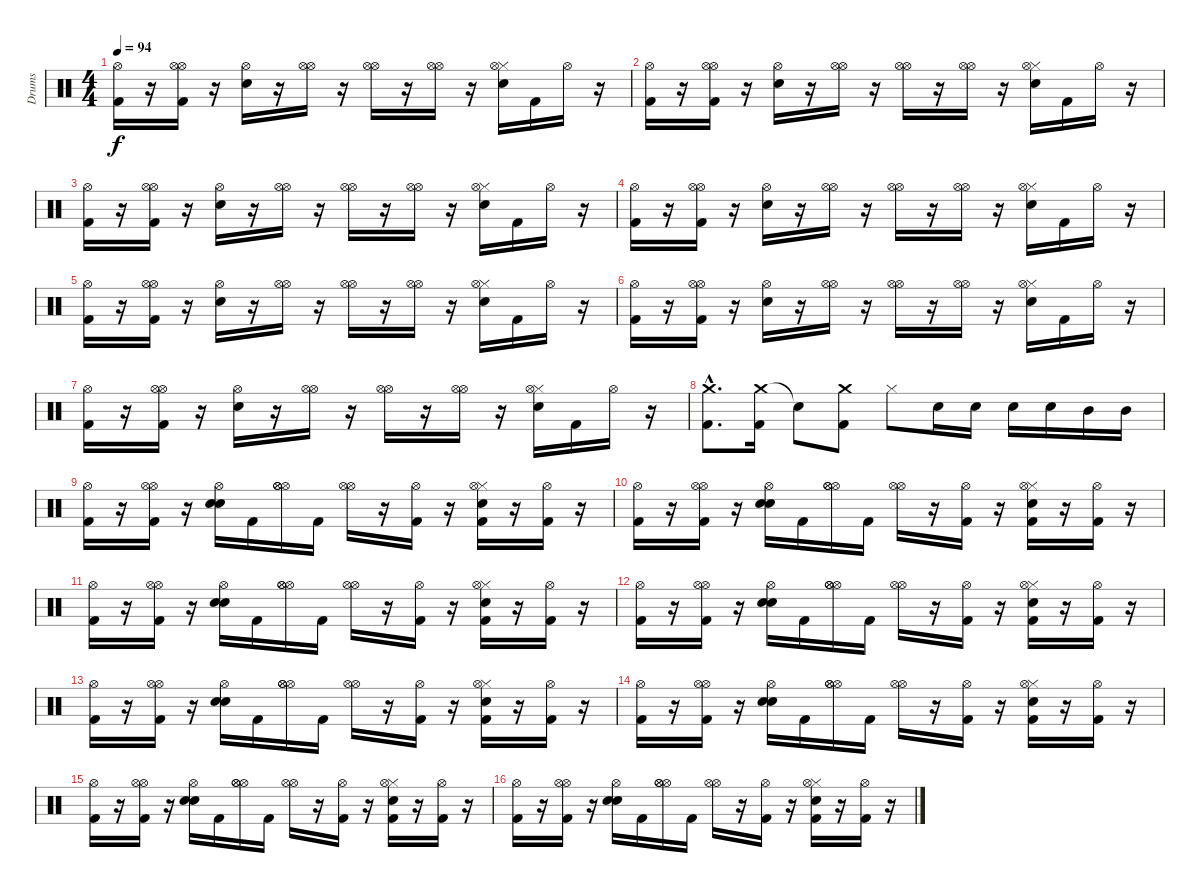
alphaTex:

\track ("Drums" "Drums") {instrument percussion}
\staff {score}
\articulation defaults
\ts (4 4)
\tempo 94
\clef neutral
\ks c
("Hi-Hat (open)" "Kick (hit) 2").16{dy f} r.16 ("Hi-Hat (open)" "Hi-Hat (open)" "Kick (hit) 2").16 r.16 ("Hi-Hat (open)" "Snare (hit) 2").16 r.16 ("Hi-Hat (open)" "Hi-Hat (open)").16 r.16 ("Hi-Hat (open)" "Hi-Hat (open)").16 r.16 ("Hi-Hat (open)" "Hi-Hat (open)").16 r.16 ("Hi-Hat (closed)" "Snare (hit) 2" "Hi-Hat (open)").16 "Kick (hit) 2".16 "Hi-Hat (open)".16 r.16 |
("Hi-Hat (open)" "Kick (hit) 2").16 r.16 ("Hi-Hat (open)" "Hi-Hat (open)" "Kick (hit) 2").16 r.16 ("Hi-Hat (open)" "Snare (hit) 2").16 r.16 ("Hi-Hat (open)" "Hi-Hat (open)").16 r.16 ("Hi-Hat (open)" "Hi-Hat (open)").16 r.16 ("Hi-Hat (open)" "Hi-Hat (open)").16 r.16 ("Hi-Hat (closed)" "Snare (hit) 2" "Hi-Hat (open)").16 "Kick (hit) 2".16 "Hi-Hat (open)".16 r.16 |
("Hi-Hat (open)" "Kick (hit) 2").16 r.16 ("Hi-Hat (open)" "Hi-Hat (open)" "Kick (hit) 2").16 r.16 ("Hi-Hat (open)" "Snare (hit) 2").16 r.16 ("Hi-Hat (open)" "Hi-Hat (open)").16 r.16 ("Hi-Hat (open)" "Hi-Hat (open)").16 r.16 ("Hi-Hat (open)" "Hi-Hat (open)").16 r.16 ("Hi-Hat (closed)" "Snare (hit) 2" "Hi-Hat (open)").16 "Kick (hit) 2".16 "Hi-Hat (open)".16 r.16 |
("Hi-Hat (open)" "Kick (hit) 2").16 r.16 ("Hi-Hat (open)" "Hi-Hat (open)" "Kick (hit) 2").16 r.16 ("Hi-Hat (open)" "Snare (hit) 2").16 r.16 ("Hi-Hat (open)" "Hi-Hat (open)").16 r.16 ("Hi-Hat (open)" "Hi-Hat (open)").16 r.16 ("Hi-Hat (open)" "Hi-Hat (open)").16 r.16 ("Hi-Hat (closed)" "Snare (hit) 2" "Hi-Hat (open)").16 "Kick (hit) 2".16 "Hi-Hat (open)".16 r.16 |
("Hi-Hat (open)" "Kick (hit) 2").16 r.16 ("Hi-Hat (open)" "Hi-Hat (open)" "Kick (hit) 2").16 r.16 ("Hi-Hat (open)" "Snare (hit) 2").16 r.16 ("Hi-Hat (open)" "Hi-Hat (open)").16 r.16 ("Hi-Hat (open)" "Hi-Hat (open)").16 r.16 ("Hi-Hat (open)" "Hi-Hat (open)").16 r.16 ("Hi-Hat (closed)" "Snare (hit) 2" "Hi-Hat (open)").16 "Kick (hit) 2".16 "Hi-Hat (open)".16 r.16 |
("Hi-Hat (open)" "Kick (hit) 2").16 r.16 ("Hi-Hat (open)" "Hi-Hat (open)" "Kick (hit) 2").16 r.16 ("Hi-Hat (open)" "Snare (hit) 2").16 r.16 ("Hi-Hat (open)" "Hi-Hat (open)").16 r.16 ("Hi-Hat (open)" "Hi-Hat (open)").16 r.16 ("Hi-Hat (open)" "Hi-Hat (open)").16 r.16 ("Hi-Hat (closed)" "Snare (hit) 2" "Hi-Hat (open)").16 "Kick (hit) 2".16 "Hi-Hat (open)".16 r.16 |
("Hi-Hat (open)" "Kick (hit) 2").16 r.16 ("Hi-Hat (open)" "Hi-Hat (open)" "Kick (hit) 2").16 r.16 ("Hi-Hat (open)" "Snare (hit) 2").16 r.16 ("Hi-Hat (open)" "Hi-Hat (open)").16 r.16 ("Hi-Hat (open)" "Hi-Hat (open)").16 r.16 ("Hi-Hat (open)" "Hi-Hat (open)").16 r.16 ("Hi-Hat (closed)" "Snare (hit) 2" "Hi-Hat (open)").16 "Kick (hit) 2".16 "Hi-Hat (open)".16 r.16 |
("Crash medium (hit)"{hac} "Kick (hit) 2"{hac}).8{d} ("Crash medium (hit)" "Kick (hit) 2").16 "Snare (hit)"{t}.8 ("Crash medium (hit)" "Kick (hit) 2").8 "Hi-Hat (closed)".8 "Snare (hit) 2".16 "Snare (hit) 2".16 "Snare (hit) 2".16 "Snare (hit) 2".16 "Mid Tom (hit)".16 "Mid Tom (hit)".16 |
("Hi-Hat (open)" "Kick (hit) 2").16 r.16 ("Hi-Hat (open)" "Hi-Hat (open)" "Kick (hit) 2").16 r.16 ("Hi-Hat (open)" "Snare (hit) 2" "Snare (hit) 2").16 "Kick (hit) 2".16 ("Hi-Hat (open)" "Hi-Hat (open)" "Hi-Hat (open)").16 "Kick (hit) 2".16 ("Hi-Hat (open)" "Hi-Hat (open)").16 r.16 ("Hi-Hat (open)" "Kick (hit) 2").16 r.16 ("Hi-Hat (closed)" "Snare (hit) 2" "Hi-Hat (open)" "Kick (hit) 2").16 r.16 ("Hi-Hat (open)" "Kick (hit) 2").16 r.16 |
("Hi-Hat (open)" "Kick (hit) 2").16 r.16 ("Hi-Hat (open)" "Hi-Hat (open)" "Kick (hit) 2").16 r.16 ("Hi-Hat (open)" "Snare (hit) 2" "Snare (hit) 2").16 "Kick (hit) 2".16 ("Hi-Hat (open)" "Hi-Hat (open)" "Hi-Hat (open)").16 "Kick (hit) 2".16 ("Hi-Hat (open)" "Hi-Hat (open)").16 r.16 ("Hi-Hat (open)" "Kick (hit) 2").16 r.16 ("Hi-Hat (closed)" "Snare (hit) 2" "Hi-Hat (open)" "Kick (hit) 2").16 r.16 ("Hi-Hat (open)" "Kick (hit) 2").16 r.16 |
("Hi-Hat (open)" "Kick (hit) 2").16 r.16 ("Hi-Hat (open)" "Hi-Hat (open)" "Kick (hit) 2").16 r.16 ("Hi-Hat (open)" "Snare (hit) 2" "Snare (hit) 2").16 "Kick (hit) 2".16 ("Hi-Hat (open)" "Hi-Hat (open)" "Hi-Hat (open)").16 "Kick (hit) 2".16 ("Hi-Hat (open)" "Hi-Hat (open)").16 r.16 ("Hi-Hat (open)" "Kick (hit) 2").16 r.16 ("Hi-Hat (closed)" "Snare (hit) 2" "Hi-Hat (open)" "Kick (hit) 2").16 r.16 ("Hi-Hat (open)" "Kick (hit) 2").16 r.16 |
("Hi-Hat (open)" "Kick (hit) 2").16 r.16 ("Hi-Hat (open)" "Hi-Hat (open)" "Kick (hit) 2").16 r.16 ("Hi-Hat (open)" "Snare (hit) 2" "Snare (hit) 2").16 "Kick (hit) 2".16 ("Hi-Hat (open)" "Hi-Hat (open)" "Hi-Hat (open)").16 "Kick (hit) 2".16 ("Hi-Hat (open)" "Hi-Hat (open)").16 r.16 ("Hi-Hat (open)" "Kick (hit) 2").16 r.16 ("Hi-Hat (closed)" "Snare (hit) 2" "Hi-Hat (open)" "Kick (hit) 2").16 r.16 ("Hi-Hat (open)" "Kick (hit) 2").16 r.16 |
("Hi-Hat (open)" "Kick (hit) 2").16 r.16 ("Hi-Hat (open)" "Hi-Hat (open)" "Kick (hit) 2").16 r.16 ("Hi-Hat (open)" "Snare (hit) 2" "Snare (hit) 2").16 "Kick (hit) 2".16 ("Hi-Hat (open)" "Hi-Hat (open)" "Hi-Hat (open)").16 "Kick (hit) 2".16 ("Hi-Hat (open)" "Hi-Hat (open)").16 r.16 ("Hi-Hat (open)" "Kick (hit) 2").16 r.16 ("Hi-Hat (closed)" "Snare (hit) 2" "Hi-Hat (open)" "Kick (hit) 2").16 r.16 ("Hi-Hat (open)" "Kick (hit) 2").16 r.16 |
("Hi-Hat (open)" "Kick (hit) 2").16 r.16 ("Hi-Hat (open)" "Hi-Hat (open)" "Kick (hit) 2").16 r.16 ("Hi-Hat (open)" "Snare (hit) 2" "Snare (hit) 2").16 "Kick (hit) 2".16 ("Hi-Hat (open)" "Hi-Hat (open)" "Hi-Hat (open)").16 "Kick (hit) 2".16 ("Hi-Hat (open)" "Hi-Hat (open)").16 r.16 ("Hi-Hat (open)" "Kick (hit) 2").16 r.16 ("Hi-Hat (closed)" "Snare (hit) 2" "Hi-Hat (open)" "Kick (hit) 2").16 r.16 ("Hi-Hat (open)" "Kick (hit) 2").16 r.16 |
("Hi-Hat (open)" "Kick (hit) 2").16 r.16 ("Hi-Hat (open)" "Hi-Hat (open)" "Kick (hit) 2").16 r.16 ("Hi-Hat (open)" "Snare (hit) 2" "Snare (hit) 2").16 "Kick (hit) 2".16 ("Hi-Hat (open)" "Hi-Hat (open)" "Hi-Hat (open)").16 "Kick (hit) 2".16 ("Hi-Hat (open)" "Hi-Hat (open)").16 r.16 ("Hi-Hat (open)" "Kick (hit) 2").16 r.16 ("Hi-Hat (closed)" "Snare (hit) 2" "Hi-Hat (open)" "Kick (hit) 2").16 r.16 ("Hi-Hat (open)" "Kick (hit) 2").16 r.16 |
("Hi-Hat (open)" "Kick (hit) 2").16 r.16 ("Hi-Hat (open)" "Hi-Hat (open)" "Kick (hit) 2").16 r.16 ("Hi-Hat (open)" "Snare (hit) 2" "Snare (hit) 2").16 "Kick (hit) 2".16 ("Hi-Hat (open)" "Hi-Hat (open)" "Hi-Hat (open)").16 "Kick (hit) 2".16 ("Hi-Hat (open)" "Hi-Hat (open)").16 r.16 ("Hi-Hat (open)" "Kick (hit) 2").16 r.16 ("Hi-Hat (closed)" "Snare (hit) 2" "Hi-Hat (open)" "Kick (hit) 2").16 r.16 ("Hi-Hat (open)" "Kick (hit) 2").16 r.16
